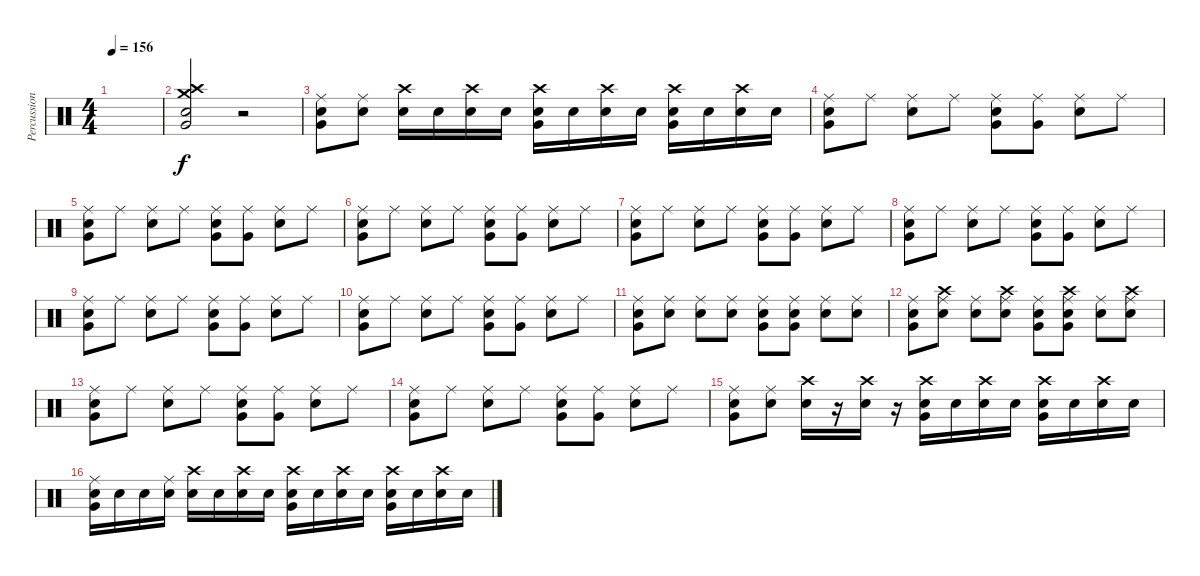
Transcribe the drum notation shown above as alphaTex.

\track ("Percussions" "Percussion") {instrument percussion}
\staff {score}
\articulation defaults
\ts (4 4)
\tempo 156
\clef neutral
\ks c
|
("Very Low Tom (hit)" "Crash high (hit)" "Crash medium (hit)" "Electric Snare (hit)").2 r.2 |
("Very Low Tom (hit)" "Electric Snare (hit)" "Ride (middle)").8 ("Electric Snare (hit)" "Ride (middle)").8 ("Electric Snare (hit)" "Crash high (hit)").16 "Electric Snare (hit)".16 ("Electric Snare (hit)" "Crash high (hit)").16 "Electric Snare (hit)".16 ("Very Low Tom (hit)" "Electric Snare (hit)" "Crash high (hit)").16 "Electric Snare (hit)".16 ("Electric Snare (hit)" "Crash high (hit)").16 "Electric Snare (hit)".16 ("Very Low Tom (hit)" "Electric Snare (hit)" "Crash high (hit)").16 "Electric Snare (hit)".16 ("Electric Snare (hit)" "Crash high (hit)").16 "Electric Snare (hit)".16 |
("Very Low Tom (hit)" "Electric Snare (hit)" "Ride (middle)").8 "Ride (middle)".8 ("Electric Snare (hit)" "Ride (middle)").8 "Ride (middle)".8 ("Very Low Tom (hit)" "Electric Snare (hit)" "Ride (middle)").8 ("Very Low Tom (hit)" "Ride (middle)").8 ("Electric Snare (hit)" "Ride (middle)").8 "Ride (middle)".8 |
("Very Low Tom (hit)" "Electric Snare (hit)" "Ride (middle)").8 "Ride (middle)".8 ("Electric Snare (hit)" "Ride (middle)").8 "Ride (middle)".8 ("Very Low Tom (hit)" "Electric Snare (hit)" "Ride (middle)").8 ("Very Low Tom (hit)" "Ride (middle)").8 ("Electric Snare (hit)" "Ride (middle)").8 "Ride (middle)".8 |
("Very Low Tom (hit)" "Electric Snare (hit)" "Ride (middle)").8 "Ride (middle)".8 ("Electric Snare (hit)" "Ride (middle)").8 "Ride (middle)".8 ("Very Low Tom (hit)" "Electric Snare (hit)" "Ride (middle)").8 ("Very Low Tom (hit)" "Ride (middle)").8 ("Electric Snare (hit)" "Ride (middle)").8 "Ride (middle)".8 |
("Very Low Tom (hit)" "Electric Snare (hit)" "Ride (middle)").8 "Ride (middle)".8 ("Electric Snare (hit)" "Ride (middle)").8 "Ride (middle)".8 ("Very Low Tom (hit)" "Electric Snare (hit)" "Ride (middle)").8 ("Very Low Tom (hit)" "Ride (middle)").8 ("Electric Snare (hit)" "Ride (middle)").8 "Ride (middle)".8 |
("Very Low Tom (hit)" "Electric Snare (hit)" "Ride (middle)").8 "Ride (middle)".8 ("Electric Snare (hit)" "Ride (middle)").8 "Ride (middle)".8 ("Very Low Tom (hit)" "Electric Snare (hit)" "Ride (middle)").8 ("Very Low Tom (hit)" "Ride (middle)").8 ("Electric Snare (hit)" "Ride (middle)").8 "Ride (middle)".8 |
("Very Low Tom (hit)" "Electric Snare (hit)" "Ride (middle)").8 "Ride (middle)".8 ("Electric Snare (hit)" "Ride (middle)").8 "Ride (middle)".8 ("Very Low Tom (hit)" "Electric Snare (hit)" "Ride (middle)").8 ("Very Low Tom (hit)" "Ride (middle)").8 ("Electric Snare (hit)" "Ride (middle)").8 "Ride (middle)".8 |
("Very Low Tom (hit)" "Electric Snare (hit)" "Ride (middle)").8 "Ride (middle)".8 ("Electric Snare (hit)" "Ride (middle)").8 "Ride (middle)".8 ("Very Low Tom (hit)" "Electric Snare (hit)" "Ride (middle)").8 ("Very Low Tom (hit)" "Ride (middle)").8 ("Electric Snare (hit)" "Ride (middle)").8 "Ride (middle)".8 |
("Very Low Tom (hit)" "Electric Snare (hit)" "Ride (middle)").8 ("Electric Snare (hit)" "Ride (middle)").8 ("Electric Snare (hit)" "Ride (middle)").8 ("Electric Snare (hit)" "Ride (middle)").8 ("Very Low Tom (hit)" "Electric Snare (hit)" "Ride (middle)").8 ("Very Low Tom (hit)" "Electric Snare (hit)" "Ride (middle)").8 ("Electric Snare (hit)" "Ride (middle)").8 ("Electric Snare (hit)" "Ride (middle)").8 |
("Very Low Tom (hit)" "Electric Snare (hit)" "Ride (middle)").8 ("Crash high (hit)" "Electric Snare (hit)" "Ride (middle)").8 ("Electric Snare (hit)" "Ride (middle)").8 ("Crash high (hit)" "Electric Snare (hit)" "Ride (middle)").8 ("Very Low Tom (hit)" "Electric Snare (hit)" "Ride (middle)").8 ("Very Low Tom (hit)" "Crash high (hit)" "Electric Snare (hit)" "Ride (middle)").8 ("Electric Snare (hit)" "Ride (middle)").8 ("Crash high (hit)" "Electric Snare (hit)" "Ride (middle)").8 |
("Very Low Tom (hit)" "Electric Snare (hit)" "Ride (middle)").8 "Ride (middle)".8 ("Electric Snare (hit)" "Ride (middle)").8 "Ride (middle)".8 ("Very Low Tom (hit)" "Electric Snare (hit)" "Ride (middle)").8 ("Very Low Tom (hit)" "Ride (middle)").8 ("Electric Snare (hit)" "Ride (middle)").8 "Ride (middle)".8 |
("Very Low Tom (hit)" "Electric Snare (hit)" "Ride (middle)").8 "Ride (middle)".8 ("Electric Snare (hit)" "Ride (middle)").8 "Ride (middle)".8 ("Very Low Tom (hit)" "Electric Snare (hit)" "Ride (middle)").8 ("Very Low Tom (hit)" "Ride (middle)").8 ("Electric Snare (hit)" "Ride (middle)").8 "Ride (middle)".8 |
("Very Low Tom (hit)" "Electric Snare (hit)" "Ride (middle)").8 ("Electric Snare (hit)" "Ride (middle)").8 ("Electric Snare (hit)" "Crash high (hit)").16 r.16 ("Electric Snare (hit)" "Crash high (hit)").16 r.16 ("Very Low Tom (hit)" "Electric Snare (hit)" "Crash high (hit)").16 "Electric Snare (hit)".16 ("Electric Snare (hit)" "Crash high (hit)").16 "Electric Snare (hit)".16 ("Very Low Tom (hit)" "Electric Snare (hit)" "Crash high (hit)").16 "Electric Snare (hit)".16 ("Electric Snare (hit)" "Crash high (hit)").16 "Electric Snare (hit)".16 |
("Very Low Tom (hit)" "Electric Snare (hit)" "Ride (middle)").16 "Electric Snare (hit)".16 "Electric Snare (hit)".16 ("Electric Snare (hit)" "Ride (middle)").16 ("Electric Snare (hit)" "Crash high (hit)").16 "Electric Snare (hit)".16 ("Electric Snare (hit)" "Crash high (hit)").16 "Electric Snare (hit)".16 ("Very Low Tom (hit)" "Electric Snare (hit)" "Crash high (hit)").16 "Electric Snare (hit)".16 ("Electric Snare (hit)" "Crash high (hit)").16 "Electric Snare (hit)".16 ("Very Low Tom (hit)" "Electric Snare (hit)" "Crash high (hit)").16 "Electric Snare (hit)".16 ("Electric Snare (hit)" "Crash high (hit)").16 "Electric Snare (hit)".16
